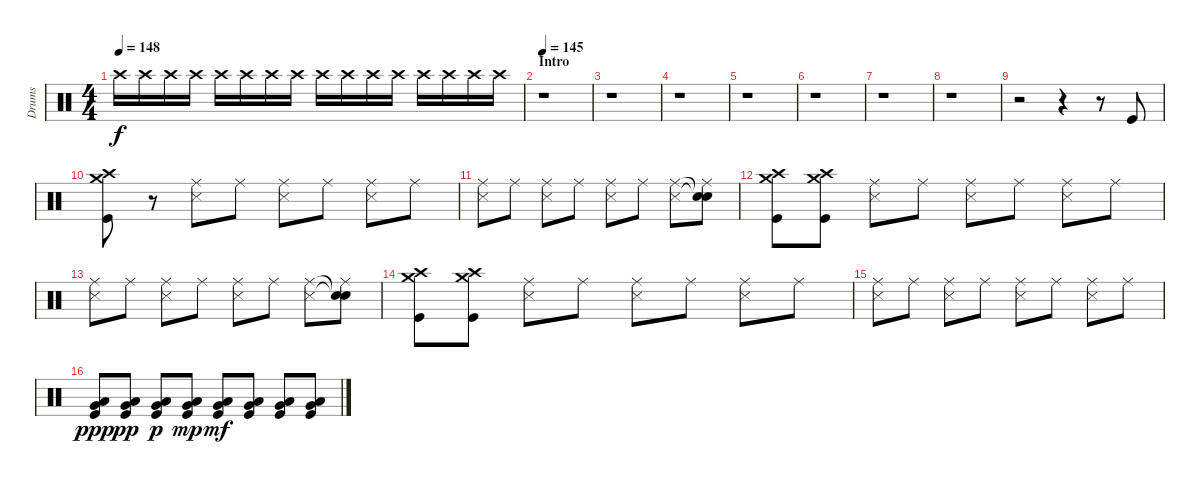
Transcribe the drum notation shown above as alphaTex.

\track ("Drums" "Drums") {instrument percussion}
\staff {score}
\articulation defaults
\ts (4 4)
\tempo 148
\clef neutral
\ks c "Crash high (hit)".16{dy f volume 0} "Crash high (hit)".16{volume 16} "Crash high (hit)".16 "Crash high (hit)".16 "Crash high (hit)".16 "Crash high (hit)".16 "Crash high (hit)".16 "Crash high (hit)".16 "Crash high (hit)".16 "Crash high (hit)".16 "Crash high (hit)".16 "Crash high (hit)".16 "Crash high (hit)".16 "Crash high (hit)".16 "Crash high (hit)".16 "Crash high (hit)".16
|
\section ("" "Intro")
\tempo 145
r.1 |
r.1 |
r.1 |
r.1 |
r.1 |
r.1 |
r.1 |
r.2 r.4 r.8 "Kick (hit)".8 |
("Crash medium (hit)" "Crash high (hit)" "Kick (hit)").8 r.8 ("Ride (middle)" "Snare (side stick) 3").8 "Ride (middle)".8 ("Ride (middle)" "Snare (side stick) 3").8 "Ride (middle)".8 ("Ride (middle)" "Snare (side stick) 3").8 "Ride (middle)".8 |
("Ride (middle)" "Snare (side stick) 3").8 "Ride (middle)".8 ("Ride (middle)" "Snare (side stick) 3").8 "Ride (middle)".8 ("Ride (middle)" "Snare (side stick) 3").8 "Ride (middle)".8 ("Ride (middle)" "Snare (side stick) 3").8 ("Snare (hit)"{t} "Snare (hit)"{t} "Ride (middle)").8 |
("Crash medium (hit)" "Crash high (hit)" "Kick (hit)").8 ("Crash medium (hit)" "Crash high (hit)" "Kick (hit)").8 ("Ride (middle)" "Snare (side stick) 3").8 "Ride (middle)".8 ("Ride (middle)" "Snare (side stick) 3").8 "Ride (middle)".8 ("Ride (middle)" "Snare (side stick) 3").8 "Ride (middle)".8 |
("Ride (middle)" "Snare (side stick) 3").8 "Ride (middle)".8 ("Ride (middle)" "Snare (side stick) 3").8 "Ride (middle)".8 ("Ride (middle)" "Snare (side stick) 3").8 "Ride (middle)".8 ("Ride (middle)" "Snare (side stick) 3").8 ("Snare (hit)"{t} "Snare (hit)"{t} "Ride (middle)").8 |
("Crash medium (hit)" "Crash high (hit)" "Kick (hit)").8 ("Crash medium (hit)" "Crash high (hit)" "Kick (hit)").8 ("Ride (middle)" "Snare (side stick) 3").8 "Ride (middle)".8 ("Ride (middle)" "Snare (side stick) 3").8 "Ride (middle)".8 ("Ride (middle)" "Snare (side stick) 3").8 "Ride (middle)".8 |
("Ride (middle)" "Snare (side stick) 3").8 "Ride (middle)".8 ("Ride (middle)" "Snare (side stick) 3").8 "Ride (middle)".8 ("Ride (middle)" "Snare (side stick) 3").8 "Ride (middle)".8 ("Ride (middle)" "Snare (side stick) 3").8 "Ride (middle)".8 |
("Low Floor Tom (hit)" "Very Low Tom (hit)" "Kick (hit)").8{dy ppp} ("Low Floor Tom (hit)" "Very Low Tom (hit)" "Kick (hit)").8{dy pp} ("Low Floor Tom (hit)" "Very Low Tom (hit)" "Kick (hit)").8{dy p} ("Low Floor Tom (hit)" "Very Low Tom (hit)" "Kick (hit)").8{dy mp} ("Low Floor Tom (hit)" "Very Low Tom (hit)" "Kick (hit)").8{dy mf} ("Low Floor Tom (hit)" "Very Low Tom (hit)" "Kick (hit)").8 ("Low Floor Tom (hit)" "Very Low Tom (hit)" "Kick (hit)").8 ("Low Floor Tom (hit)" "Very Low Tom (hit)" "Kick (hit)").8
